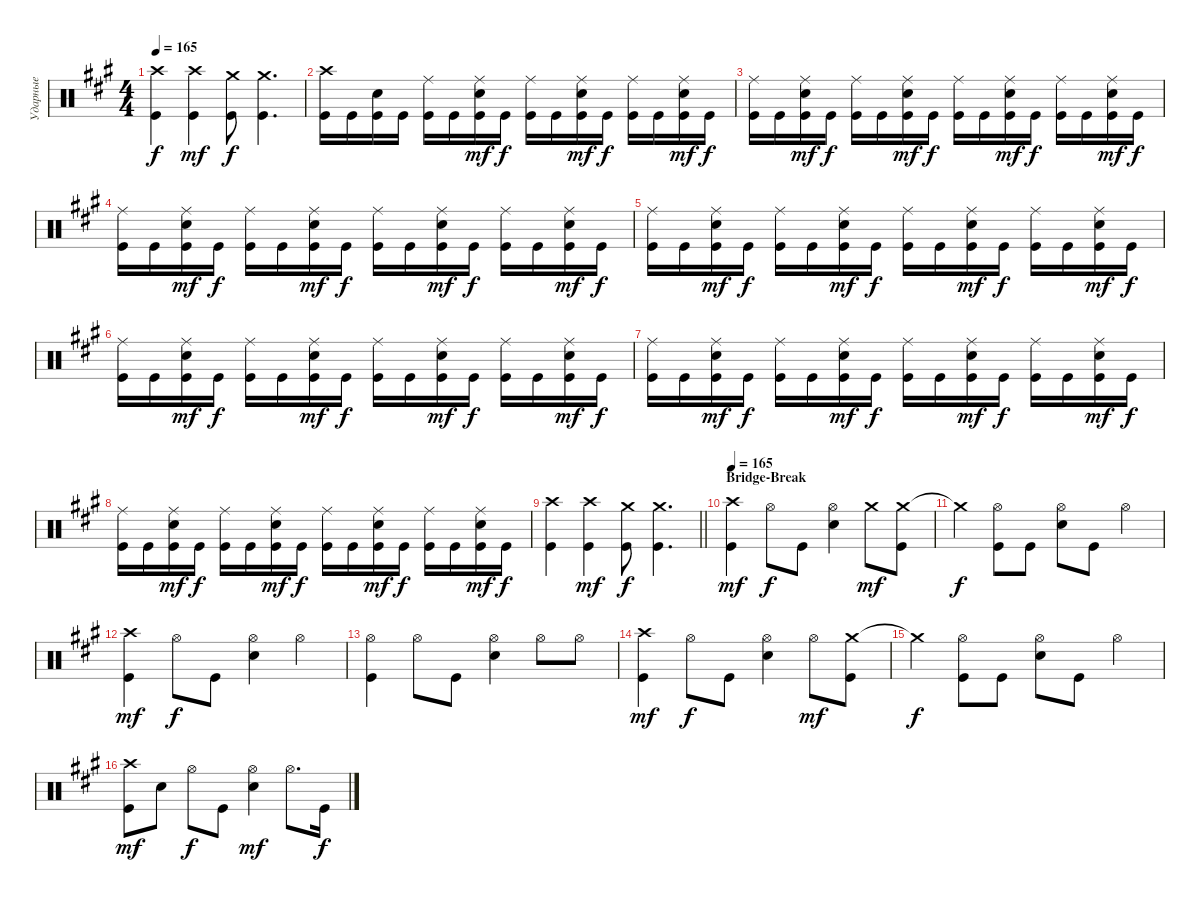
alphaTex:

\track ("Ударные" "Ударные") {instrument percussion}
\staff {score}
\articulation defaults
\ts (4 4)
\tempo 165
\clef neutral
\ks f#minor
("Kick (hit)" "Crash high (hit)").4{dy f} ("Kick (hit)" "Crash high (hit)").4{dy mf} ("Kick (hit)" "Crash medium (hit)").8{dy f} ("Kick (hit)" "Crash medium (hit)").4{d} |
("Kick (hit)" "Crash high (hit)").16 "Kick (hit)".16 ("Kick (hit)" "Snare (hit) 2").16 "Kick (hit)".16 ("Kick (hit)" "Ride (middle)").16 "Kick (hit)".16 ("Kick (hit)" "Snare (hit) 2" "Ride (middle)").16{dy mf} "Kick (hit)".16{dy f} ("Kick (hit)" "Ride (middle)").16 "Kick (hit)".16 ("Kick (hit)" "Snare (hit) 2" "Ride (middle)").16{dy mf} "Kick (hit)".16{dy f} ("Kick (hit)" "Ride (middle)").16 "Kick (hit)".16 ("Kick (hit)" "Snare (hit) 2" "Ride (middle)").16{dy mf} "Kick (hit)".16{dy f} |
("Kick (hit)" "Ride (middle)").16 "Kick (hit)".16 ("Kick (hit)" "Snare (hit) 2" "Ride (middle)").16{dy mf} "Kick (hit)".16{dy f} ("Kick (hit)" "Ride (middle)").16 "Kick (hit)".16 ("Kick (hit)" "Snare (hit) 2" "Ride (middle)").16{dy mf} "Kick (hit)".16{dy f} ("Kick (hit)" "Ride (middle)").16 "Kick (hit)".16 ("Kick (hit)" "Snare (hit) 2" "Ride (middle)").16{dy mf} "Kick (hit)".16{dy f} ("Kick (hit)" "Ride (middle)").16 "Kick (hit)".16 ("Kick (hit)" "Snare (hit) 2" "Ride (middle)").16{dy mf} "Kick (hit)".16{dy f} |
("Kick (hit)" "Ride (middle)").16 "Kick (hit)".16 ("Kick (hit)" "Snare (hit) 2" "Ride (middle)").16{dy mf} "Kick (hit)".16{dy f} ("Kick (hit)" "Ride (middle)").16 "Kick (hit)".16 ("Kick (hit)" "Snare (hit) 2" "Ride (middle)").16{dy mf} "Kick (hit)".16{dy f} ("Kick (hit)" "Ride (middle)").16 "Kick (hit)".16 ("Kick (hit)" "Snare (hit) 2" "Ride (middle)").16{dy mf} "Kick (hit)".16{dy f} ("Kick (hit)" "Ride (middle)").16 "Kick (hit)".16 ("Kick (hit)" "Snare (hit) 2" "Ride (middle)").16{dy mf} "Kick (hit)".16{dy f} |
("Kick (hit)" "Ride (middle)").16 "Kick (hit)".16 ("Kick (hit)" "Snare (hit) 2" "Ride (middle)").16{dy mf} "Kick (hit)".16{dy f} ("Kick (hit)" "Ride (middle)").16 "Kick (hit)".16 ("Kick (hit)" "Snare (hit) 2" "Ride (middle)").16{dy mf} "Kick (hit)".16{dy f} ("Kick (hit)" "Ride (middle)").16 "Kick (hit)".16 ("Kick (hit)" "Snare (hit) 2" "Ride (middle)").16{dy mf} "Kick (hit)".16{dy f} ("Kick (hit)" "Ride (middle)").16 "Kick (hit)".16 ("Kick (hit)" "Snare (hit) 2" "Ride (middle)").16{dy mf} "Kick (hit)".16{dy f} |
("Kick (hit)" "Ride (middle)").16 "Kick (hit)".16 ("Kick (hit)" "Snare (hit) 2" "Ride (middle)").16{dy mf} "Kick (hit)".16{dy f} ("Kick (hit)" "Ride (middle)").16 "Kick (hit)".16 ("Kick (hit)" "Snare (hit) 2" "Ride (middle)").16{dy mf} "Kick (hit)".16{dy f} ("Kick (hit)" "Ride (middle)").16 "Kick (hit)".16 ("Kick (hit)" "Snare (hit) 2" "Ride (middle)").16{dy mf} "Kick (hit)".16{dy f} ("Kick (hit)" "Ride (middle)").16 "Kick (hit)".16 ("Kick (hit)" "Snare (hit) 2" "Ride (middle)").16{dy mf} "Kick (hit)".16{dy f} |
("Kick (hit)" "Ride (middle)").16 "Kick (hit)".16 ("Kick (hit)" "Snare (hit) 2" "Ride (middle)").16{dy mf} "Kick (hit)".16{dy f} ("Kick (hit)" "Ride (middle)").16 "Kick (hit)".16 ("Kick (hit)" "Snare (hit) 2" "Ride (middle)").16{dy mf} "Kick (hit)".16{dy f} ("Kick (hit)" "Ride (middle)").16 "Kick (hit)".16 ("Kick (hit)" "Snare (hit) 2" "Ride (middle)").16{dy mf} "Kick (hit)".16{dy f} ("Kick (hit)" "Ride (middle)").16 "Kick (hit)".16 ("Kick (hit)" "Snare (hit) 2" "Ride (middle)").16{dy mf} "Kick (hit)".16{dy f} |
("Kick (hit)" "Ride (middle)").16 "Kick (hit)".16 ("Kick (hit)" "Snare (hit) 2" "Ride (middle)").16{dy mf} "Kick (hit)".16{dy f} ("Kick (hit)" "Ride (middle)").16 "Kick (hit)".16 ("Kick (hit)" "Snare (hit) 2" "Ride (middle)").16{dy mf} "Kick (hit)".16{dy f} ("Kick (hit)" "Ride (middle)").16 "Kick (hit)".16 ("Kick (hit)" "Snare (hit) 2" "Ride (middle)").16{dy mf} "Kick (hit)".16{dy f} ("Kick (hit)" "Ride (middle)").16 "Kick (hit)".16 ("Kick (hit)" "Snare (hit) 2" "Ride (middle)").16{dy mf} "Kick (hit)".16{dy f} |
\barLineRight lightlight
("Kick (hit)" "Crash high (hit)").4 ("Kick (hit)" "Crash high (hit)").4{dy mf} ("Kick (hit)" "Crash medium (hit)").8{dy f} ("Kick (hit)" "Crash medium (hit)").4{d} |
\section ("" "Bridge-Break")
\tempo 165
("Kick (hit)" "Crash high (hit)").4{dy mf} "Hi-Hat (open)".8{dy f} "Kick (hit)".8 ("Hi-Hat (open)" "Snare (hit) 2").4 "Crash medium (hit)".8{dy mf} ("Crash medium (hit)" "Kick (hit)").8 |
"Crash medium (hit)"{t}.4{dy f} ("Kick (hit)" "Hi-Hat (open)").8 "Kick (hit)".8 ("Snare (hit) 2" "Hi-Hat (open)").8 "Kick (hit)".8 "Hi-Hat (open)".4 |
("Kick (hit)" "Crash high (hit)").4{dy mf} "Hi-Hat (open)".8{dy f} "Kick (hit)".8 ("Hi-Hat (open)" "Snare (hit) 2").4 "Hi-Hat (open)".4 |
("Kick (hit)" "Hi-Hat (open)").4 "Hi-Hat (open)".8 "Kick (hit)".8 ("Snare (hit) 2" "Hi-Hat (open)").4 "Hi-Hat (open)".8 "Hi-Hat (open)".8 |
("Kick (hit)" "Crash high (hit)").4{dy mf} "Hi-Hat (open)".8{dy f} "Kick (hit)".8 ("Hi-Hat (open)" "Snare (hit) 2").4 "Hi-Hat (open)".8{dy mf} ("Crash medium (hit)" "Kick (hit)").8 |
"Crash medium (hit)"{t}.4{dy f} ("Kick (hit)" "Hi-Hat (open)").8 "Kick (hit)".8 ("Snare (hit) 2" "Hi-Hat (open)").8 "Kick (hit)".8 "Hi-Hat (open)".4 |
("Kick (hit)" "Crash high (hit)").8{dy mf} "Snare (hit) 2".8 "Hi-Hat (open)".8{dy f} "Kick (hit)".8 ("Hi-Hat (open)" "Snare (hit) 2").4{dy mf} "Hi-Hat (open)".8{d} "Kick (hit)".16{dy f}
